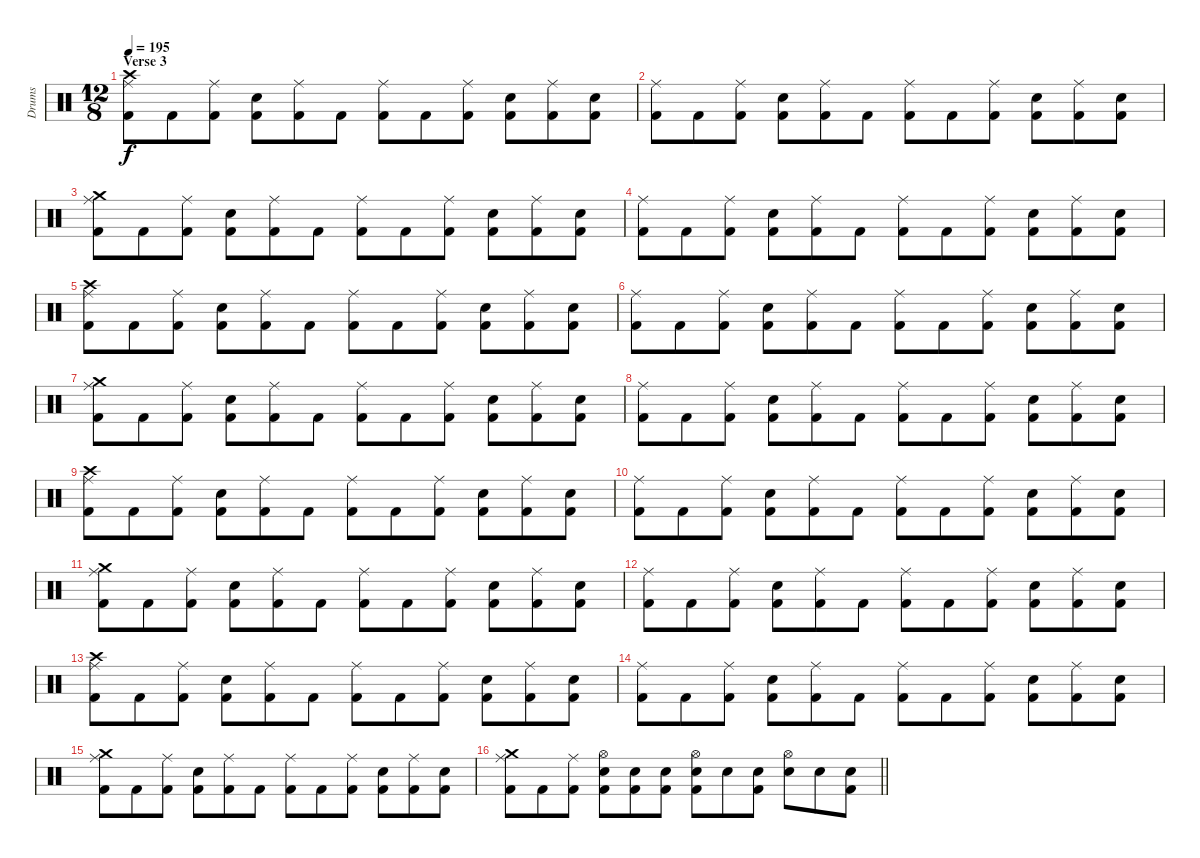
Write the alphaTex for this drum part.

\track ("Drums" "Drums") {instrument percussion}
\staff {score}
\articulation defaults
\ts (12 8)
\section ("" "Verse 3")
\tempo 195
\clef neutral
\ks c
("Crash high (hit)" "Ride (middle)" "Kick (hit) 2").8{dy f} "Kick (hit) 2".8 ("Ride (middle)" "Kick (hit) 2").8 ("Snare (hit) 2" "Kick (hit) 2").8 ("Ride (middle)" "Kick (hit) 2").8 "Kick (hit) 2".8 ("Ride (middle)" "Kick (hit) 2").8 "Kick (hit) 2".8 ("Ride (middle)" "Kick (hit) 2").8 ("Snare (hit) 2" "Kick (hit) 2").8 ("Ride (middle)" "Kick (hit) 2").8 ("Snare (hit) 2" "Kick (hit) 2").8 |
("Ride (middle)" "Kick (hit) 2").8 "Kick (hit) 2".8 ("Ride (middle)" "Kick (hit) 2").8 ("Snare (hit) 2" "Kick (hit) 2").8 ("Ride (middle)" "Kick (hit) 2").8 "Kick (hit) 2".8 ("Ride (middle)" "Kick (hit) 2").8 "Kick (hit) 2".8 ("Ride (middle)" "Kick (hit) 2").8 ("Snare (hit) 2" "Kick (hit) 2").8 ("Ride (middle)" "Kick (hit) 2").8 ("Snare (hit) 2" "Kick (hit) 2").8 |
("Crash medium (hit)" "Ride (middle)" "Kick (hit) 2").8 "Kick (hit) 2".8 ("Ride (middle)" "Kick (hit) 2").8 ("Snare (hit) 2" "Kick (hit) 2").8 ("Ride (middle)" "Kick (hit) 2").8 "Kick (hit) 2".8 ("Ride (middle)" "Kick (hit) 2").8 "Kick (hit) 2".8 ("Ride (middle)" "Kick (hit) 2").8 ("Snare (hit) 2" "Kick (hit) 2").8 ("Ride (middle)" "Kick (hit) 2").8 ("Snare (hit) 2" "Kick (hit) 2").8 |
("Ride (middle)" "Kick (hit) 2").8 "Kick (hit) 2".8 ("Ride (middle)" "Kick (hit) 2").8 ("Snare (hit) 2" "Kick (hit) 2").8 ("Ride (middle)" "Kick (hit) 2").8 "Kick (hit) 2".8 ("Ride (middle)" "Kick (hit) 2").8 "Kick (hit) 2".8 ("Ride (middle)" "Kick (hit) 2").8 ("Snare (hit) 2" "Kick (hit) 2").8 ("Ride (middle)" "Kick (hit) 2").8 ("Snare (hit) 2" "Kick (hit) 2").8 |
("Crash high (hit)" "Ride (middle)" "Kick (hit) 2").8 "Kick (hit) 2".8 ("Ride (middle)" "Kick (hit) 2").8 ("Snare (hit) 2" "Kick (hit) 2").8 ("Ride (middle)" "Kick (hit) 2").8 "Kick (hit) 2".8 ("Ride (middle)" "Kick (hit) 2").8 "Kick (hit) 2".8 ("Ride (middle)" "Kick (hit) 2").8 ("Snare (hit) 2" "Kick (hit) 2").8 ("Ride (middle)" "Kick (hit) 2").8 ("Snare (hit) 2" "Kick (hit) 2").8 |
("Ride (middle)" "Kick (hit) 2").8 "Kick (hit) 2".8 ("Ride (middle)" "Kick (hit) 2").8 ("Snare (hit) 2" "Kick (hit) 2").8 ("Ride (middle)" "Kick (hit) 2").8 "Kick (hit) 2".8 ("Ride (middle)" "Kick (hit) 2").8 "Kick (hit) 2".8 ("Ride (middle)" "Kick (hit) 2").8 ("Snare (hit) 2" "Kick (hit) 2").8 ("Ride (middle)" "Kick (hit) 2").8 ("Snare (hit) 2" "Kick (hit) 2").8 |
("Crash medium (hit)" "Ride (middle)" "Kick (hit) 2").8 "Kick (hit) 2".8 ("Ride (middle)" "Kick (hit) 2").8 ("Snare (hit) 2" "Kick (hit) 2").8 ("Ride (middle)" "Kick (hit) 2").8 "Kick (hit) 2".8 ("Ride (middle)" "Kick (hit) 2").8 "Kick (hit) 2".8 ("Ride (middle)" "Kick (hit) 2").8 ("Snare (hit) 2" "Kick (hit) 2").8 ("Ride (middle)" "Kick (hit) 2").8 ("Snare (hit) 2" "Kick (hit) 2").8 |
("Ride (middle)" "Kick (hit) 2").8 "Kick (hit) 2".8 ("Ride (middle)" "Kick (hit) 2").8 ("Snare (hit) 2" "Kick (hit) 2").8 ("Ride (middle)" "Kick (hit) 2").8 "Kick (hit) 2".8 ("Ride (middle)" "Kick (hit) 2").8 "Kick (hit) 2".8 ("Ride (middle)" "Kick (hit) 2").8 ("Snare (hit) 2" "Kick (hit) 2").8 ("Ride (middle)" "Kick (hit) 2").8 ("Snare (hit) 2" "Kick (hit) 2").8 |
("Crash high (hit)" "Ride (middle)" "Kick (hit) 2").8 "Kick (hit) 2".8 ("Ride (middle)" "Kick (hit) 2").8 ("Snare (hit) 2" "Kick (hit) 2").8 ("Ride (middle)" "Kick (hit) 2").8 "Kick (hit) 2".8 ("Ride (middle)" "Kick (hit) 2").8 "Kick (hit) 2".8 ("Ride (middle)" "Kick (hit) 2").8 ("Snare (hit) 2" "Kick (hit) 2").8 ("Ride (middle)" "Kick (hit) 2").8 ("Snare (hit) 2" "Kick (hit) 2").8 |
("Ride (middle)" "Kick (hit) 2").8 "Kick (hit) 2".8 ("Ride (middle)" "Kick (hit) 2").8 ("Snare (hit) 2" "Kick (hit) 2").8 ("Ride (middle)" "Kick (hit) 2").8 "Kick (hit) 2".8 ("Ride (middle)" "Kick (hit) 2").8 "Kick (hit) 2".8 ("Ride (middle)" "Kick (hit) 2").8 ("Snare (hit) 2" "Kick (hit) 2").8 ("Ride (middle)" "Kick (hit) 2").8 ("Snare (hit) 2" "Kick (hit) 2").8 |
("Crash medium (hit)" "Ride (middle)" "Kick (hit) 2").8 "Kick (hit) 2".8 ("Ride (middle)" "Kick (hit) 2").8 ("Snare (hit) 2" "Kick (hit) 2").8 ("Ride (middle)" "Kick (hit) 2").8 "Kick (hit) 2".8 ("Ride (middle)" "Kick (hit) 2").8 "Kick (hit) 2".8 ("Ride (middle)" "Kick (hit) 2").8 ("Snare (hit) 2" "Kick (hit) 2").8 ("Ride (middle)" "Kick (hit) 2").8 ("Snare (hit) 2" "Kick (hit) 2").8 |
("Ride (middle)" "Kick (hit) 2").8 "Kick (hit) 2".8 ("Ride (middle)" "Kick (hit) 2").8 ("Snare (hit) 2" "Kick (hit) 2").8 ("Ride (middle)" "Kick (hit) 2").8 "Kick (hit) 2".8 ("Ride (middle)" "Kick (hit) 2").8 "Kick (hit) 2".8 ("Ride (middle)" "Kick (hit) 2").8 ("Snare (hit) 2" "Kick (hit) 2").8 ("Ride (middle)" "Kick (hit) 2").8 ("Snare (hit) 2" "Kick (hit) 2").8 |
("Crash high (hit)" "Ride (middle)" "Kick (hit) 2").8 "Kick (hit) 2".8 ("Ride (middle)" "Kick (hit) 2").8 ("Snare (hit) 2" "Kick (hit) 2").8 ("Ride (middle)" "Kick (hit) 2").8 "Kick (hit) 2".8 ("Ride (middle)" "Kick (hit) 2").8 "Kick (hit) 2".8 ("Ride (middle)" "Kick (hit) 2").8 ("Snare (hit) 2" "Kick (hit) 2").8 ("Ride (middle)" "Kick (hit) 2").8 ("Snare (hit) 2" "Kick (hit) 2").8 |
("Ride (middle)" "Kick (hit) 2").8 "Kick (hit) 2".8 ("Ride (middle)" "Kick (hit) 2").8 ("Snare (hit) 2" "Kick (hit) 2").8 ("Ride (middle)" "Kick (hit) 2").8 "Kick (hit) 2".8 ("Ride (middle)" "Kick (hit) 2").8 "Kick (hit) 2".8 ("Ride (middle)" "Kick (hit) 2").8 ("Snare (hit) 2" "Kick (hit) 2").8 ("Ride (middle)" "Kick (hit) 2").8 ("Snare (hit) 2" "Kick (hit) 2").8 |
("Crash medium (hit)" "Ride (middle)" "Kick (hit) 2").8 "Kick (hit) 2".8 ("Ride (middle)" "Kick (hit) 2").8 ("Snare (hit) 2" "Kick (hit) 2").8 ("Ride (middle)" "Kick (hit) 2").8 "Kick (hit) 2".8 ("Ride (middle)" "Kick (hit) 2").8 "Kick (hit) 2".8 ("Ride (middle)" "Kick (hit) 2").8 ("Snare (hit) 2" "Kick (hit) 2").8 ("Ride (middle)" "Kick (hit) 2").8 ("Snare (hit) 2" "Kick (hit) 2").8 |
\barLineRight lightlight
("Crash medium (hit)" "Ride (middle)" "Kick (hit) 2").8 "Kick (hit) 2".8 ("Ride (middle)" "Kick (hit) 2").8 ("Hi-Hat (open)" "Snare (hit) 2" "Kick (hit) 2").8 ("Snare (hit) 2" "Kick (hit) 2").8 ("Snare (hit) 2" "Kick (hit) 2").8 ("Hi-Hat (open)" "Snare (hit) 2" "Kick (hit) 2").8 "Snare (hit) 2".8 ("Snare (hit) 2" "Kick (hit) 2").8 ("Hi-Hat (open)" "Snare (hit) 2").8 "Snare (hit) 2".8 ("Snare (hit) 2" "Kick (hit) 2").8
